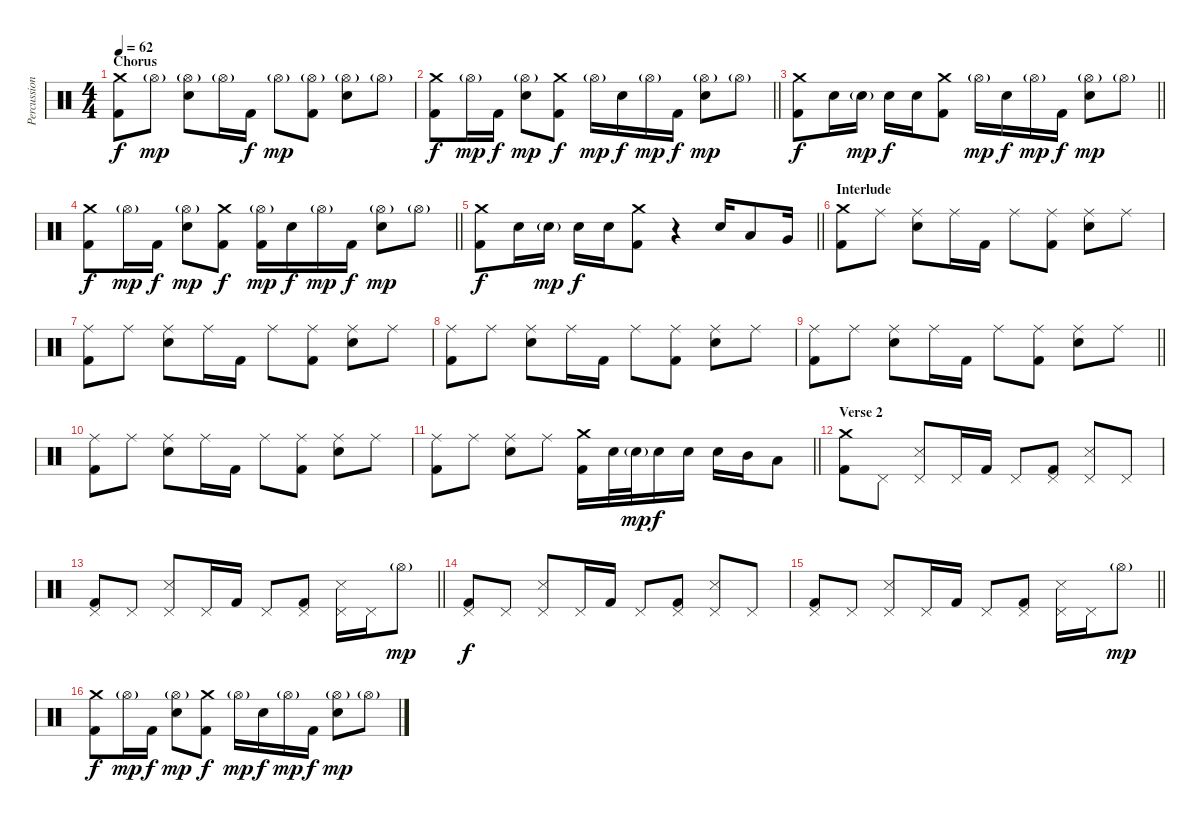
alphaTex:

\track ("Percussion" "Percussion") {instrument percussion}
\staff {score}
\articulation defaults
\ts (4 4)
\section ("" "Chorus ")
\tempo 62
\clef neutral
\ks c
("Crash medium (hit)" "Kick (hit) 2").8{dy f} "Hi-Hat (open)"{g}.8{dy mp} ("Hi-Hat (open)"{g} "Electric Snare (hit)").8 "Hi-Hat (open)"{g}.16 "Kick (hit) 2".16{dy f} "Hi-Hat (open)"{g}.8{dy mp} ("Hi-Hat (open)"{g} "Kick (hit) 2").8 ("Hi-Hat (open)"{g} "Electric Snare (hit)").8 "Hi-Hat (open)"{g}.8 |
\barLineRight lightlight
("Crash medium (hit)" "Kick (hit) 2").8{dy f} "Hi-Hat (open)"{g}.16{dy mp} "Kick (hit) 2".16{dy f} ("Hi-Hat (open)"{g} "Electric Snare (hit)").8{dy mp} ("Crash medium (hit)" "Kick (hit) 2").8{dy f} "Hi-Hat (open)"{g}.16{dy mp} "Electric Snare (hit)".16{dy f} "Hi-Hat (open)"{g}.16{dy mp} "Kick (hit) 2".16{dy f} ("Hi-Hat (open)"{g} "Electric Snare (hit)").8{dy mp} "Hi-Hat (open)"{g}.8 |
\barLineRight lightlight
("Crash medium (hit)" "Kick (hit) 2").8{dy f} "Electric Snare (hit)".16 "Electric Snare (hit)"{g}.16{dy mp} "Electric Snare (hit)".16{dy f} "Electric Snare (hit)".16 ("Crash medium (hit)" "Kick (hit) 2").8 "Hi-Hat (open)"{g}.16{dy mp} "Electric Snare (hit)".16{dy f} "Hi-Hat (open)"{g}.16{dy mp} "Kick (hit) 2".16{dy f} ("Hi-Hat (open)"{g} "Electric Snare (hit)").8{dy mp} "Hi-Hat (open)"{g}.8 |
\barLineRight lightlight
("Crash medium (hit)" "Kick (hit) 2").8{dy f} "Hi-Hat (open)"{g}.16{dy mp} "Kick (hit) 2".16{dy f} ("Hi-Hat (open)"{g} "Electric Snare (hit)").8{dy mp} ("Crash medium (hit)" "Kick (hit) 2").8{dy f} ("Hi-Hat (open)"{g} "Kick (hit) 2").16{dy mp} "Electric Snare (hit)".16{dy f} "Hi-Hat (open)"{g}.16{dy mp} "Kick (hit) 2".16{dy f} ("Hi-Hat (open)"{g} "Electric Snare (hit)").8{dy mp} "Hi-Hat (open)"{g}.8 |
\barLineRight lightlight
("Crash medium (hit)" "Kick (hit) 2").8{dy f} "Electric Snare (hit)".16 "Electric Snare (hit)"{g}.16{dy mp} "Electric Snare (hit)".16{dy f} "Electric Snare (hit)".16 ("Crash medium (hit)" "Kick (hit) 2").8 r.4 "Electric Snare (hit)".16 "Low Tom (hit)".8 "Very Low Tom (hit)".16 |
\section ("" "Interlude")
("Crash medium (hit)" "Kick (hit) 2").8 "Ride (middle)".8 ("Ride (middle)" "Electric Snare (hit)").8 "Ride (middle)".16 "Kick (hit) 2".16 "Ride (middle)".8 ("Ride (middle)" "Kick (hit) 2").8 ("Ride (middle)" "Electric Snare (hit)").8 "Ride (middle)".8 |
("Ride (middle)" "Kick (hit) 2").8 "Ride (middle)".8 ("Ride (middle)" "Electric Snare (hit)").8 "Ride (middle)".16 "Kick (hit) 2".16 "Ride (middle)".8 ("Ride (middle)" "Kick (hit) 2").8 ("Ride (middle)" "Electric Snare (hit)").8 "Ride (middle)".8 |
("Ride (middle)" "Kick (hit) 2").8 "Ride (middle)".8 ("Ride (middle)" "Electric Snare (hit)").8 "Ride (middle)".16 "Kick (hit) 2".16 "Ride (middle)".8 ("Ride (middle)" "Kick (hit) 2").8 ("Ride (middle)" "Electric Snare (hit)").8 "Ride (middle)".8 |
\barLineRight lightlight
("Ride (middle)" "Kick (hit) 2").8 "Ride (middle)".8 ("Ride (middle)" "Electric Snare (hit)").8 "Ride (middle)".16 "Kick (hit) 2".16 "Ride (middle)".8 ("Ride (middle)" "Kick (hit) 2").8 ("Ride (middle)" "Electric Snare (hit)").8 "Ride (middle)".8 |
("Ride (middle)" "Kick (hit) 2").8 "Ride (middle)".8 ("Ride (middle)" "Electric Snare (hit)").8 "Ride (middle)".16 "Kick (hit) 2".16 "Ride (middle)".8 ("Ride (middle)" "Kick (hit) 2").8 ("Ride (middle)" "Electric Snare (hit)").8 "Ride (middle)".8 |
\barLineRight lightlight
("Ride (middle)" "Kick (hit) 2").8 "Ride (middle)".8 ("Ride (middle)" "Electric Snare (hit)").8 "Ride (middle)".8 ("Crash medium (hit)" "Kick (hit) 2").16 "Electric Snare (hit)".32 "Electric Snare (hit)"{g}.32{dy mp} "Electric Snare (hit)".16{dy f} "Electric Snare (hit)".16 "Electric Snare (hit)".16 "Mid Tom (hit)".16 "Low Tom (hit)".8 |
\section ("" "Verse 2")
("Crash medium (hit)" "Kick (hit) 2").8 "Pedal Hi-Hat (hit)".8 ("Pedal Hi-Hat (hit)" "Snare (side stick) 3").8 "Pedal Hi-Hat (hit)".16 "Kick (hit) 2".16 "Pedal Hi-Hat (hit)".8 ("Pedal Hi-Hat (hit)" "Kick (hit) 2").8 ("Pedal Hi-Hat (hit)" "Snare (side stick) 3").8 "Pedal Hi-Hat (hit)".8 |
\barLineRight lightlight
("Pedal Hi-Hat (hit)" "Kick (hit) 2").8 "Pedal Hi-Hat (hit)".8 ("Pedal Hi-Hat (hit)" "Snare (side stick) 3").8 "Pedal Hi-Hat (hit)".16 "Kick (hit) 2".16 "Pedal Hi-Hat (hit)".8 ("Pedal Hi-Hat (hit)" "Kick (hit) 2").8 ("Pedal Hi-Hat (hit)" "Snare (side stick) 3").16 "Pedal Hi-Hat (hit)".16 "Hi-Hat (open)"{g}.8{dy mp} |
("Pedal Hi-Hat (hit)" "Kick (hit) 2").8{dy f} "Pedal Hi-Hat (hit)".8 ("Pedal Hi-Hat (hit)" "Snare (side stick) 3").8 "Pedal Hi-Hat (hit)".16 "Kick (hit) 2".16 "Pedal Hi-Hat (hit)".8 ("Pedal Hi-Hat (hit)" "Kick (hit) 2").8 ("Pedal Hi-Hat (hit)" "Snare (side stick) 3").8 "Pedal Hi-Hat (hit)".8 |
\barLineRight lightlight
("Pedal Hi-Hat (hit)" "Kick (hit) 2").8 "Pedal Hi-Hat (hit)".8 ("Pedal Hi-Hat (hit)" "Snare (side stick) 3").8 "Pedal Hi-Hat (hit)".16 "Kick (hit) 2".16 "Pedal Hi-Hat (hit)".8 ("Pedal Hi-Hat (hit)" "Kick (hit) 2").8 ("Pedal Hi-Hat (hit)" "Snare (side stick) 3").16 "Pedal Hi-Hat (hit)".16 "Hi-Hat (open)"{g}.8{dy mp} |
("Crash medium (hit)" "Kick (hit) 2").8{dy f} "Hi-Hat (open)"{g}.16{dy mp} "Kick (hit) 2".16{dy f} ("Hi-Hat (open)"{g} "Electric Snare (hit)").8{dy mp} ("Crash medium (hit)" "Kick (hit) 2").8{dy f} "Hi-Hat (open)"{g}.16{dy mp} "Electric Snare (hit)".16{dy f} "Hi-Hat (open)"{g}.16{dy mp} "Kick (hit) 2".16{dy f} ("Hi-Hat (open)"{g} "Electric Snare (hit)").8{dy mp} "Hi-Hat (open)"{g}.8
